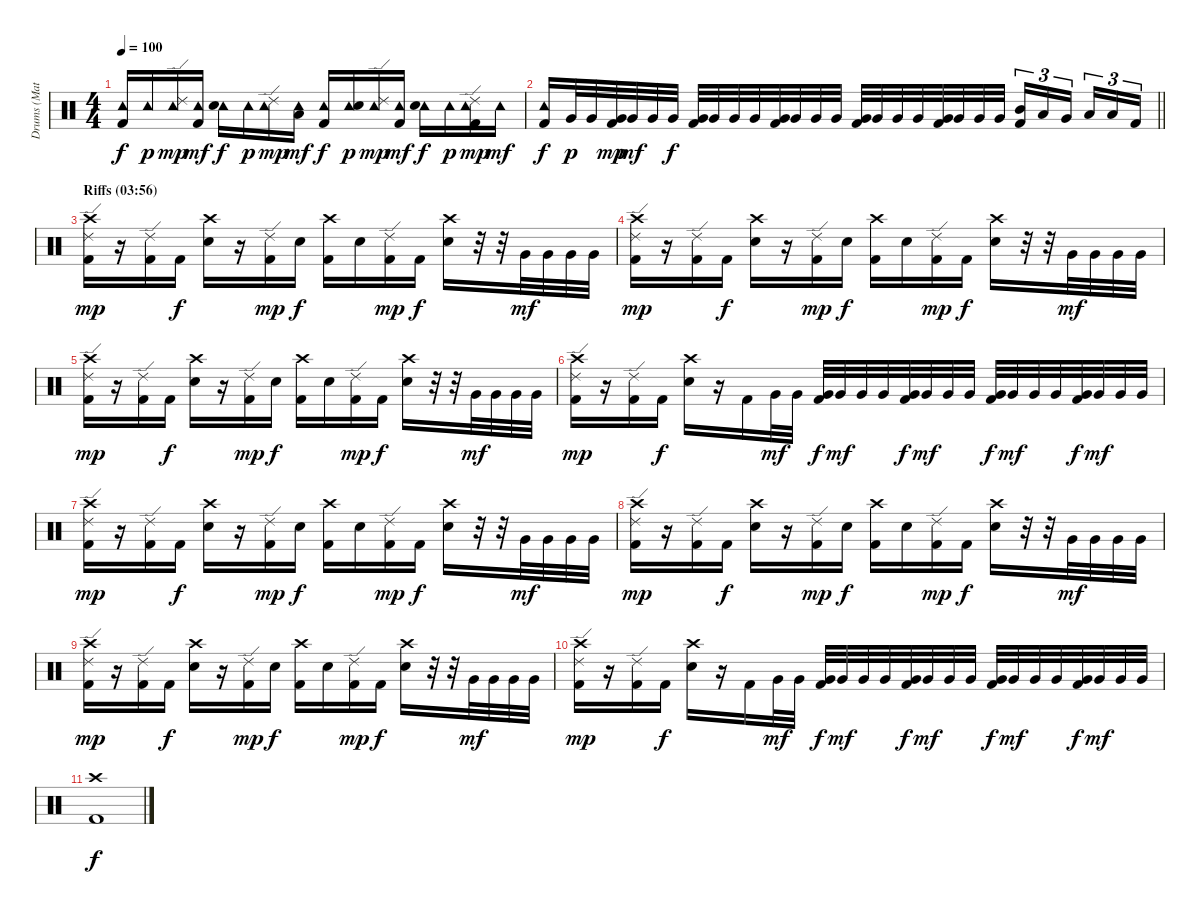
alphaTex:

\track ("Drums (Matt Sorum)" "Drums (Mat") {instrument percussion}
\staff {score}
\articulation defaults
\ts (4 4)
\tempo 100
\clef neutral
\ks c
("Tambourine (hit)" "Kick (hit) 2").16{dy f} "Tambourine (hit)".16{dy p} ("Tambourine (hit)" "Ride (edge) 2").16{dy mp} ("Tambourine (hit)" "Kick (hit) 2").16{dy mf} ("Tambourine (hit)" "Electric Snare (hit)").16{dy f} "Tambourine (hit)".16{dy p} ("Tambourine (hit)" "Ride (edge) 2").16{dy mp} ("Tambourine (hit)" "Low Tom (hit)").16{dy mf} ("Tambourine (hit)" "Kick (hit) 2").16{dy f} ("Tambourine (hit)" "Electric Snare (hit)").16{dy p} ("Tambourine (hit)" "Ride (edge) 2").16{dy mp} ("Tambourine (hit)" "Kick (hit) 2").16{dy mf} ("Tambourine (hit)" "Electric Snare (hit)").16{dy f} "Tambourine (hit)".16{dy p} ("Tambourine (hit)" "Ride (edge) 2" "Kick (hit) 2").16{dy mp} "Tambourine (hit)".16{dy mf} |
\barLineRight lightlight
("Tambourine (hit)" "Kick (hit) 2").16{dy f} "Very Low Tom (hit)".32{dy p} "Very Low Tom (hit)".32 ("Very Low Tom (hit)" "Kick (hit) 2").32{dy mp} "Very Low Tom (hit)".32{dy mf} "Very Low Tom (hit)".32 "Very Low Tom (hit)".32{dy f} ("Very Low Tom (hit)" "Kick (hit) 2").32 "Very Low Tom (hit)".32 "Very Low Tom (hit)".32 "Very Low Tom (hit)".32 ("Very Low Tom (hit)" "Kick (hit) 2").32 "Very Low Tom (hit)".32 "Very Low Tom (hit)".32 "Very Low Tom (hit)".32 ("Very Low Tom (hit)" "Kick (hit) 2").32 "Very Low Tom (hit)".32 "Very Low Tom (hit)".32 "Very Low Tom (hit)".32 ("Very Low Tom (hit)" "Kick (hit) 2").32 "Very Low Tom (hit)".32 "Very Low Tom (hit)".32 "Very Low Tom (hit)".32 ("Mid Tom (hit)" "Kick (hit) 2").16{tu (3 2)} "Low Tom (hit)".16{tu (3 2)} "Very Low Tom (hit)".16{tu (3 2) beam splitsecondary} "Low Floor Tom (hit)".16{tu (3 2)} "Low Floor Tom (hit)".16{tu (3 2)} "Kick (hit) 2".16{tu (3 2)} |
\section ("" "Riffs (03:56)")
("Crash high (hit)" "Ride (edge) 2" "Kick (hit) 2").16{dy mp} r.16 ("Ride (edge) 2" "Kick (hit) 2").16 "Kick (hit) 2".16{dy f} ("Crash high (hit)" "Electric Snare (hit)").16 r.16 ("Ride (edge) 2" "Kick (hit) 2").16{dy mp} "Electric Snare (hit)".16{dy f} ("Crash high (hit)" "Kick (hit) 2").16 "Electric Snare (hit)".16 ("Ride (edge) 2" "Kick (hit) 2").16{dy mp} "Kick (hit) 2".16{dy f} ("Crash high (hit)" "Electric Snare (hit)").16 r.32 r.32 "Very Low Tom (hit)".32{dy mf} "Very Low Tom (hit)".32 "Very Low Tom (hit)".32 "Very Low Tom (hit)".32 |
("Crash high (hit)" "Ride (edge) 2" "Kick (hit) 2").16{dy mp} r.16 ("Ride (edge) 2" "Kick (hit) 2").16 "Kick (hit) 2".16{dy f} ("Crash high (hit)" "Electric Snare (hit)").16 r.16 ("Ride (edge) 2" "Kick (hit) 2").16{dy mp} "Electric Snare (hit)".16{dy f} ("Crash high (hit)" "Kick (hit) 2").16 "Electric Snare (hit)".16 ("Ride (edge) 2" "Kick (hit) 2").16{dy mp} "Kick (hit) 2".16{dy f} ("Crash high (hit)" "Electric Snare (hit)").16 r.32 r.32 "Very Low Tom (hit)".32{dy mf} "Very Low Tom (hit)".32 "Very Low Tom (hit)".32 "Very Low Tom (hit)".32 |
("Crash high (hit)" "Ride (edge) 2" "Kick (hit) 2").16{dy mp} r.16 ("Ride (edge) 2" "Kick (hit) 2").16 "Kick (hit) 2".16{dy f} ("Crash high (hit)" "Electric Snare (hit)").16 r.16 ("Ride (edge) 2" "Kick (hit) 2").16{dy mp} "Electric Snare (hit)".16{dy f} ("Crash high (hit)" "Kick (hit) 2").16 "Electric Snare (hit)".16 ("Ride (edge) 2" "Kick (hit) 2").16{dy mp} "Kick (hit) 2".16{dy f} ("Crash high (hit)" "Electric Snare (hit)").16 r.32 r.32 "Very Low Tom (hit)".32{dy mf} "Very Low Tom (hit)".32 "Very Low Tom (hit)".32 "Very Low Tom (hit)".32 |
("Crash high (hit)" "Ride (edge) 2" "Kick (hit) 2").16{dy mp} r.16 ("Ride (edge) 2" "Kick (hit) 2").16 "Kick (hit) 2".16{dy f} ("Crash high (hit)" "Electric Snare (hit)").16 r.16 "Kick (hit) 2".16 "Very Low Tom (hit)".32{dy mf} "Very Low Tom (hit)".32 ("Very Low Tom (hit)" "Kick (hit) 2").32{dy f} "Very Low Tom (hit)".32{dy mf} "Very Low Tom (hit)".32 "Very Low Tom (hit)".32 ("Very Low Tom (hit)" "Kick (hit) 2").32{dy f} "Very Low Tom (hit)".32{dy mf} "Very Low Tom (hit)".32 "Very Low Tom (hit)".32 ("Very Low Tom (hit)" "Kick (hit) 2").32{dy f} "Very Low Tom (hit)".32{dy mf} "Very Low Tom (hit)".32 "Very Low Tom (hit)".32 ("Very Low Tom (hit)" "Kick (hit) 2").32{dy f} "Very Low Tom (hit)".32{dy mf} "Very Low Tom (hit)".32 "Very Low Tom (hit)".32 |
("Crash high (hit)" "Ride (edge) 2" "Kick (hit) 2").16{dy mp} r.16 ("Ride (edge) 2" "Kick (hit) 2").16 "Kick (hit) 2".16{dy f} ("Crash high (hit)" "Electric Snare (hit)").16 r.16 ("Ride (edge) 2" "Kick (hit) 2").16{dy mp} "Electric Snare (hit)".16{dy f} ("Crash high (hit)" "Kick (hit) 2").16 "Electric Snare (hit)".16 ("Ride (edge) 2" "Kick (hit) 2").16{dy mp} "Kick (hit) 2".16{dy f} ("Crash high (hit)" "Electric Snare (hit)").16 r.32 r.32 "Very Low Tom (hit)".32{dy mf} "Very Low Tom (hit)".32 "Very Low Tom (hit)".32 "Very Low Tom (hit)".32 |
("Crash high (hit)" "Ride (edge) 2" "Kick (hit) 2").16{dy mp} r.16 ("Ride (edge) 2" "Kick (hit) 2").16 "Kick (hit) 2".16{dy f} ("Crash high (hit)" "Electric Snare (hit)").16 r.16 ("Ride (edge) 2" "Kick (hit) 2").16{dy mp} "Electric Snare (hit)".16{dy f} ("Crash high (hit)" "Kick (hit) 2").16 "Electric Snare (hit)".16 ("Ride (edge) 2" "Kick (hit) 2").16{dy mp} "Kick (hit) 2".16{dy f} ("Crash high (hit)" "Electric Snare (hit)").16 r.32 r.32 "Very Low Tom (hit)".32{dy mf} "Very Low Tom (hit)".32 "Very Low Tom (hit)".32 "Very Low Tom (hit)".32 |
("Crash high (hit)" "Ride (edge) 2" "Kick (hit) 2").16{dy mp} r.16 ("Ride (edge) 2" "Kick (hit) 2").16 "Kick (hit) 2".16{dy f} ("Crash high (hit)" "Electric Snare (hit)").16 r.16 ("Ride (edge) 2" "Kick (hit) 2").16{dy mp} "Electric Snare (hit)".16{dy f} ("Crash high (hit)" "Kick (hit) 2").16 "Electric Snare (hit)".16 ("Ride (edge) 2" "Kick (hit) 2").16{dy mp} "Kick (hit) 2".16{dy f} ("Crash high (hit)" "Electric Snare (hit)").16 r.32 r.32 "Very Low Tom (hit)".32{dy mf} "Very Low Tom (hit)".32 "Very Low Tom (hit)".32 "Very Low Tom (hit)".32 |
("Crash high (hit)" "Ride (edge) 2" "Kick (hit) 2").16{dy mp} r.16 ("Ride (edge) 2" "Kick (hit) 2").16 "Kick (hit) 2".16{dy f} ("Crash high (hit)" "Electric Snare (hit)").16 r.16 "Kick (hit) 2".16 "Very Low Tom (hit)".32{dy mf} "Very Low Tom (hit)".32 ("Very Low Tom (hit)" "Kick (hit) 2").32{dy f} "Very Low Tom (hit)".32{dy mf} "Very Low Tom (hit)".32 "Very Low Tom (hit)".32 ("Very Low Tom (hit)" "Kick (hit) 2").32{dy f} "Very Low Tom (hit)".32{dy mf} "Very Low Tom (hit)".32 "Very Low Tom (hit)".32 ("Very Low Tom (hit)" "Kick (hit) 2").32{dy f} "Very Low Tom (hit)".32{dy mf} "Very Low Tom (hit)".32 "Very Low Tom (hit)".32 ("Very Low Tom (hit)" "Kick (hit) 2").32{dy f} "Very Low Tom (hit)".32{dy mf} "Very Low Tom (hit)".32 "Very Low Tom (hit)".32 |
("Crash high (hit)" "Kick (hit) 2").1{dy f}
